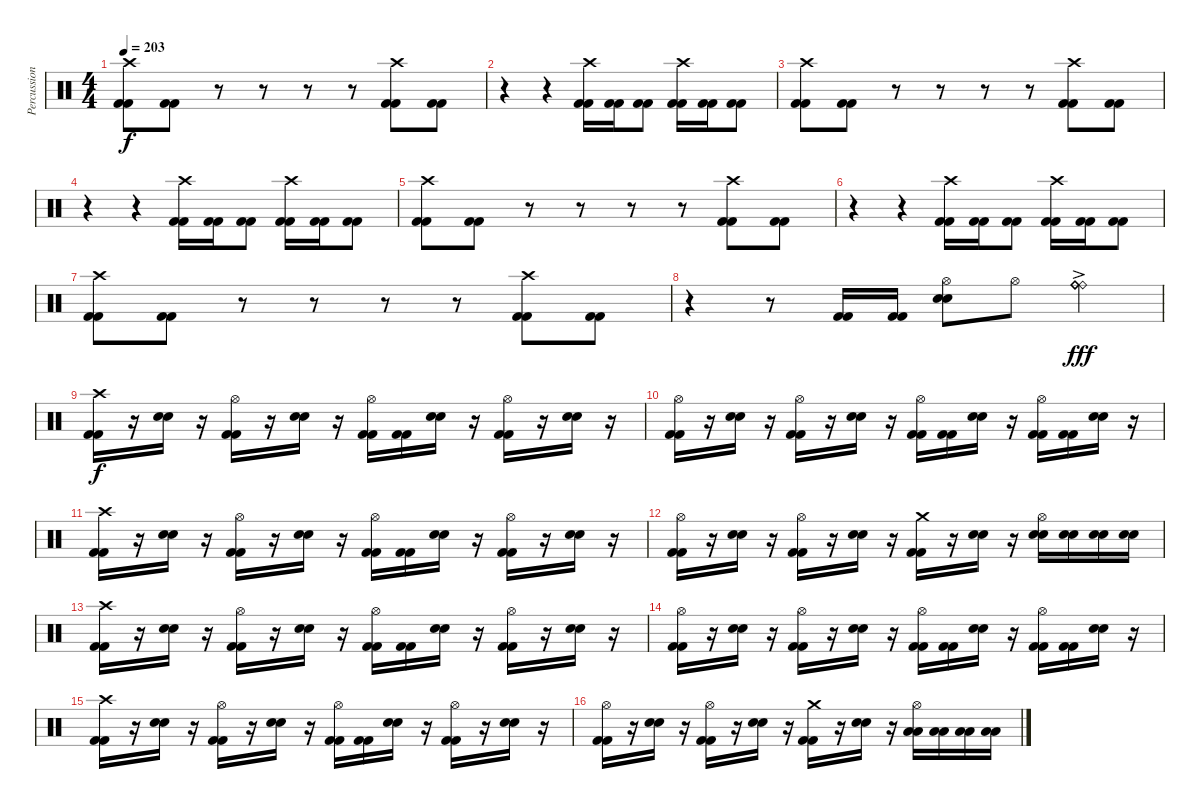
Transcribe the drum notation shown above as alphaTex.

\track ("Percussion" "Percussion") {instrument percussion}
\staff {score}
\articulation defaults
\ts (4 4)
\tempo 203
\clef neutral
\ks c
("Crash high (hit)" "Kick (hit) 2" "Kick (hit) 2").8{dy f} ("Kick (hit) 2" "Kick (hit) 2").8 r.8{volume 0} r.8 r.8 r.8 ("Crash high (hit)" "Kick (hit) 2" "Kick (hit) 2").8{volume 16} ("Kick (hit) 2" "Kick (hit) 2").8 |
r.4{volume 0} r.4 ("Crash high (hit)" "Kick (hit) 2" "Kick (hit) 2").16{volume 16} ("Kick (hit) 2" "Kick (hit) 2").16 ("Kick (hit) 2" "Kick (hit) 2").8 ("Crash high (hit)" "Kick (hit) 2" "Kick (hit) 2").16 ("Kick (hit) 2" "Kick (hit) 2").16 ("Kick (hit) 2" "Kick (hit) 2").8 |
("Crash high (hit)" "Kick (hit) 2" "Kick (hit) 2").8 ("Kick (hit) 2" "Kick (hit) 2").8 r.8{volume 0} r.8 r.8 r.8 ("Crash high (hit)" "Kick (hit) 2" "Kick (hit) 2").8{volume 16} ("Kick (hit) 2" "Kick (hit) 2").8 |
r.4{volume 0} r.4 ("Crash high (hit)" "Kick (hit) 2" "Kick (hit) 2").16{volume 16} ("Kick (hit) 2" "Kick (hit) 2").16 ("Kick (hit) 2" "Kick (hit) 2").8 ("Crash high (hit)" "Kick (hit) 2" "Kick (hit) 2").16 ("Kick (hit) 2" "Kick (hit) 2").16 ("Kick (hit) 2" "Kick (hit) 2").8 |
("Crash high (hit)" "Kick (hit) 2" "Kick (hit) 2").8 ("Kick (hit) 2" "Kick (hit) 2").8 r.8{volume 0} r.8 r.8 r.8 ("Crash high (hit)" "Kick (hit) 2" "Kick (hit) 2").8{volume 16} ("Kick (hit) 2" "Kick (hit) 2").8 |
r.4{volume 0} r.4 ("Crash high (hit)" "Kick (hit) 2" "Kick (hit) 2").16{volume 16} ("Kick (hit) 2" "Kick (hit) 2").16 ("Kick (hit) 2" "Kick (hit) 2").8 ("Crash high (hit)" "Kick (hit) 2" "Kick (hit) 2").16 ("Kick (hit) 2" "Kick (hit) 2").16 ("Kick (hit) 2" "Kick (hit) 2").8 |
("Crash high (hit)" "Kick (hit) 2" "Kick (hit) 2").8 ("Kick (hit) 2" "Kick (hit) 2").8 r.8{volume 0} r.8 r.8 r.8 ("Crash high (hit)" "Kick (hit) 2" "Kick (hit) 2").8{volume 16} ("Kick (hit) 2" "Kick (hit) 2").8 |
r.4{volume 0} r.8 ("Kick (hit) 2" "Kick (hit) 2").16{volume 16} ("Kick (hit) 2" "Kick (hit) 2").16 ("Hi-Hat (open)" "Snare (hit) 2" "Snare (hit) 2").8 "Hi-Hat (open)".8 ("Ride (bell)"{ac} "Ride (bell)"{ac} "Ride (bell)"{ac} "Ride (bell)"{ac} "Ride (bell)"{ac} "Ride (bell)"{ac}).4{dy fff} |
("Crash high (hit)" "Kick (hit) 2" "Kick (hit) 2").16{dy f} r.16 ("Snare (hit) 2" "Snare (hit) 2").16 r.16 ("Hi-Hat (open)" "Kick (hit) 2" "Kick (hit) 2").16 r.16 ("Snare (hit) 2" "Snare (hit) 2").16 r.16 ("Hi-Hat (open)" "Kick (hit) 2" "Kick (hit) 2").16 ("Kick (hit) 2" "Kick (hit) 2").16 ("Snare (hit) 2" "Snare (hit) 2").16 r.16 ("Hi-Hat (open)" "Kick (hit) 2" "Kick (hit) 2").16 r.16 ("Snare (hit) 2" "Snare (hit) 2").16 r.16 |
("Hi-Hat (open)" "Kick (hit) 2" "Kick (hit) 2").16 r.16 ("Snare (hit) 2" "Snare (hit) 2").16 r.16 ("Hi-Hat (open)" "Kick (hit) 2" "Kick (hit) 2").16 r.16 ("Snare (hit) 2" "Snare (hit) 2").16 r.16 ("Hi-Hat (open)" "Kick (hit) 2" "Kick (hit) 2").16 ("Kick (hit) 2" "Kick (hit) 2").16 ("Snare (hit) 2" "Snare (hit) 2").16 r.16 ("Hi-Hat (open)" "Kick (hit) 2" "Kick (hit) 2").16 ("Kick (hit) 2" "Kick (hit) 2").16 ("Snare (hit) 2" "Snare (hit) 2").16 r.16 |
("Crash high (hit)" "Kick (hit) 2" "Kick (hit) 2").16 r.16 ("Snare (hit) 2" "Snare (hit) 2").16 r.16 ("Hi-Hat (open)" "Kick (hit) 2" "Kick (hit) 2").16 r.16 ("Snare (hit) 2" "Snare (hit) 2").16 r.16 ("Hi-Hat (open)" "Kick (hit) 2" "Kick (hit) 2").16 ("Kick (hit) 2" "Kick (hit) 2").16 ("Snare (hit) 2" "Snare (hit) 2").16 r.16 ("Hi-Hat (open)" "Kick (hit) 2" "Kick (hit) 2").16 r.16 ("Snare (hit) 2" "Snare (hit) 2").16 r.16 |
("Hi-Hat (open)" "Kick (hit) 2" "Kick (hit) 2").16 r.16 ("Snare (hit) 2" "Snare (hit) 2").16 r.16 ("Hi-Hat (open)" "Kick (hit) 2" "Kick (hit) 2").16 r.16 ("Snare (hit) 2" "Snare (hit) 2").16 r.16 ("Crash medium (hit)" "Kick (hit) 2" "Kick (hit) 2").16 r.16 ("Snare (hit) 2" "Snare (hit) 2").16 r.16 ("Hi-Hat (open)" "Snare (hit) 2" "Snare (hit) 2").16 ("Snare (hit) 2" "Snare (hit) 2").16 ("Snare (hit) 2" "Snare (hit) 2").16 ("Snare (hit) 2" "Snare (hit) 2").16 |
("Crash high (hit)" "Kick (hit) 2" "Kick (hit) 2").16 r.16 ("Snare (hit) 2" "Snare (hit) 2").16 r.16 ("Hi-Hat (open)" "Kick (hit) 2" "Kick (hit) 2").16 r.16 ("Snare (hit) 2" "Snare (hit) 2").16 r.16 ("Hi-Hat (open)" "Kick (hit) 2" "Kick (hit) 2").16 ("Kick (hit) 2" "Kick (hit) 2").16 ("Snare (hit) 2" "Snare (hit) 2").16 r.16 ("Hi-Hat (open)" "Kick (hit) 2" "Kick (hit) 2").16 r.16 ("Snare (hit) 2" "Snare (hit) 2").16 r.16 |
("Hi-Hat (open)" "Kick (hit) 2" "Kick (hit) 2").16 r.16 ("Snare (hit) 2" "Snare (hit) 2").16 r.16 ("Hi-Hat (open)" "Kick (hit) 2" "Kick (hit) 2").16 r.16 ("Snare (hit) 2" "Snare (hit) 2").16 r.16 ("Hi-Hat (open)" "Kick (hit) 2" "Kick (hit) 2").16 ("Kick (hit) 2" "Kick (hit) 2").16 ("Snare (hit) 2" "Snare (hit) 2").16 r.16 ("Hi-Hat (open)" "Kick (hit) 2" "Kick (hit) 2").16 ("Kick (hit) 2" "Kick (hit) 2").16 ("Snare (hit) 2" "Snare (hit) 2").16 r.16 |
("Crash high (hit)" "Kick (hit) 2" "Kick (hit) 2").16 r.16 ("Snare (hit) 2" "Snare (hit) 2").16 r.16 ("Hi-Hat (open)" "Kick (hit) 2" "Kick (hit) 2").16 r.16 ("Snare (hit) 2" "Snare (hit) 2").16 r.16 ("Hi-Hat (open)" "Kick (hit) 2" "Kick (hit) 2").16 ("Kick (hit) 2" "Kick (hit) 2").16 ("Snare (hit) 2" "Snare (hit) 2").16 r.16 ("Hi-Hat (open)" "Kick (hit) 2" "Kick (hit) 2").16 r.16 ("Snare (hit) 2" "Snare (hit) 2").16 r.16 |
("Hi-Hat (open)" "Kick (hit) 2" "Kick (hit) 2").16 r.16 ("Snare (hit) 2" "Snare (hit) 2").16 r.16 ("Hi-Hat (open)" "Kick (hit) 2" "Kick (hit) 2").16 r.16 ("Snare (hit) 2" "Snare (hit) 2").16 r.16 ("Crash medium (hit)" "Kick (hit) 2" "Kick (hit) 2").16 r.16 ("Snare (hit) 2" "Snare (hit) 2").16 r.16 ("Hi-Hat (open)" "Low Tom (hit)" "Low Tom (hit)").16 ("Low Tom (hit)" "Low Tom (hit)").16 ("Low Tom (hit)" "Low Tom (hit)").16 ("Low Tom (hit)" "Low Tom (hit)").16
